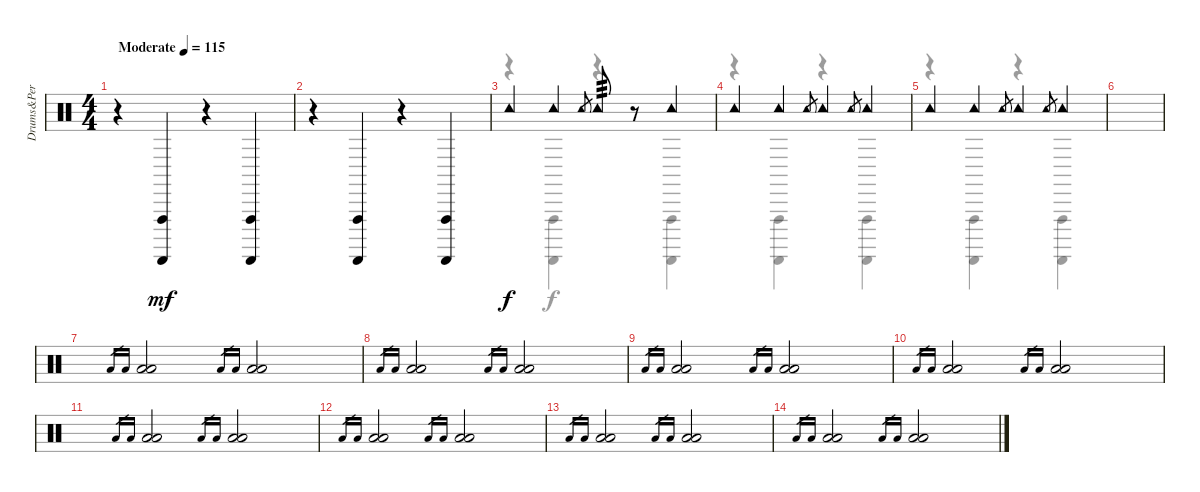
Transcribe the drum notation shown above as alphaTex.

\track ("Drums&Per" "Drums&Per") {instrument percussion}
\staff {score}
\articulation defaults
\voice
\ts (4 4)
\tempo (115 "Moderate")
\clef neutral
\ks c
r.4{dy mf} ("Vibraslap (hit)" "Guiro (scrap-return)").4 r.4 ("Vibraslap (hit)" "Guiro (scrap-return)").4 |
r.4 ("Vibraslap (hit)" "Guiro (scrap-return)").4 r.4 ("Vibraslap (hit)" "Guiro (scrap-return)").4 |
"Tambourine (hit)".4{dy f} "Tambourine (hit)".4 "Tambourine (hit)".8{gr} "Tambourine (hit)".8{tp 3} r.8 "Tambourine (hit)".4 |
"Tambourine (hit)".4 "Tambourine (hit)".4 "Tambourine (hit)".8{gr} "Tambourine (hit)".4 "Tambourine (hit)".8{gr} "Tambourine (hit)".4 |
"Tambourine (hit)".4 "Tambourine (hit)".4 "Tambourine (hit)".8{gr} "Tambourine (hit)".4 "Tambourine (hit)".8{gr} "Tambourine (hit)".4 |
|
"Low Tom (hit)".16{gr} "Low Floor Tom (hit)".16{gr} ("Low Tom (hit)" "Low Floor Tom (hit)").2 "Low Tom (hit)".16{gr} "Low Floor Tom (hit)".16{gr} ("Low Tom (hit)" "Low Floor Tom (hit)").2 |
"Low Tom (hit)".16{gr} "Low Floor Tom (hit)".16{gr} ("Low Tom (hit)" "Low Floor Tom (hit)").2 "Low Tom (hit)".16{gr} "Low Floor Tom (hit)".16{gr} ("Low Tom (hit)" "Low Floor Tom (hit)").2 |
"Low Tom (hit)".16{gr} "Low Floor Tom (hit)".16{gr} ("Low Tom (hit)" "Low Floor Tom (hit)").2 "Low Tom (hit)".16{gr} "Low Floor Tom (hit)".16{gr} ("Low Tom (hit)" "Low Floor Tom (hit)").2 |
"Low Tom (hit)".16{gr} "Low Floor Tom (hit)".16{gr} ("Low Tom (hit)" "Low Floor Tom (hit)").2 "Low Tom (hit)".16{gr} "Low Floor Tom (hit)".16{gr} ("Low Tom (hit)" "Low Floor Tom (hit)").2 |
"Low Tom (hit)".16{gr} "Low Floor Tom (hit)".16{gr} ("Low Tom (hit)" "Low Floor Tom (hit)").2 "Low Tom (hit)".16{gr} "Low Floor Tom (hit)".16{gr} ("Low Tom (hit)" "Low Floor Tom (hit)").2 |
"Low Tom (hit)".16{gr} "Low Floor Tom (hit)".16{gr} ("Low Tom (hit)" "Low Floor Tom (hit)").2 "Low Tom (hit)".16{gr} "Low Floor Tom (hit)".16{gr} ("Low Tom (hit)" "Low Floor Tom (hit)").2 |
"Low Tom (hit)".16{gr} "Low Floor Tom (hit)".16{gr} ("Low Tom (hit)" "Low Floor Tom (hit)").2 "Low Tom (hit)".16{gr} "Low Floor Tom (hit)".16{gr} ("Low Tom (hit)" "Low Floor Tom (hit)").2 |
"Low Tom (hit)".16{gr} "Low Floor Tom (hit)".16{gr} ("Low Tom (hit)" "Low Floor Tom (hit)").2 "Low Tom (hit)".16{gr} "Low Floor Tom (hit)".16{gr} ("Low Tom (hit)" "Low Floor Tom (hit)").2
\voice
\clef neutral
\ottava regular
\simile none
\ks c
|
|
r.4 ("Vibraslap (hit)" "Guiro (scrap-return)").4 r.4 ("Vibraslap (hit)" "Guiro (scrap-return)").4 |
r.4 ("Vibraslap (hit)" "Guiro (scrap-return)").4 r.4 ("Vibraslap (hit)" "Guiro (scrap-return)").4 |
r.4 ("Vibraslap (hit)" "Guiro (scrap-return)").4 r.4 ("Vibraslap (hit)" "Guiro (scrap-return)").4 |
|
|
|
|
|
|
|
|
